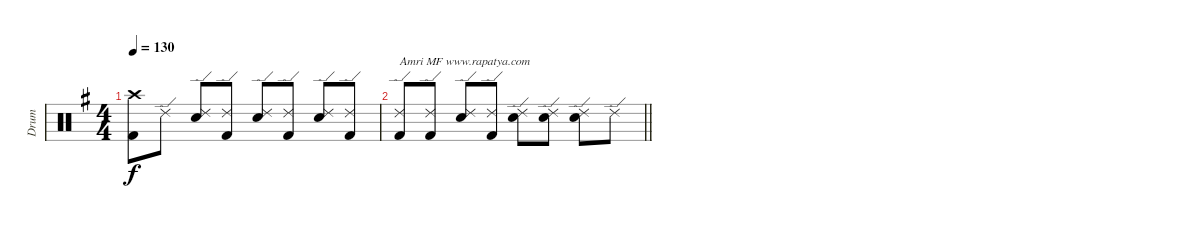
\track ("Drum" "Drum") {instrument percussion}
\staff {score}
\articulation defaults
\ts (4 4)
\tempo 130
\clef neutral
\ks g
("Kick (hit) 2" "Crash high (hit)").8{dy f} "Ride (edge) 2".8 ("Ride (edge) 2" "Electric Snare (hit)").8 ("Ride (edge) 2" "Kick (hit) 2").8 ("Electric Snare (hit)" "Ride (edge) 2").8 ("Ride (edge) 2" "Kick (hit) 2").8 ("Electric Snare (hit)" "Ride (edge) 2").8 ("Kick (hit) 2" "Ride (edge) 2").8 |
\barLineRight lightlight
("Kick (hit) 2" "Ride (edge) 2").8{txt "Amri MF www.rapatya.com"} ("Kick (hit) 2" "Ride (edge) 2").8 ("Ride (edge) 2" "Electric Snare (hit)").8 ("Ride (edge) 2" "Kick (hit) 2").8 ("Electric Snare (hit)" "Ride (edge) 2").8 ("Ride (edge) 2" "Electric Snare (hit)").8 ("Electric Snare (hit)" "Ride (edge) 2").8 "Ride (edge) 2".8
